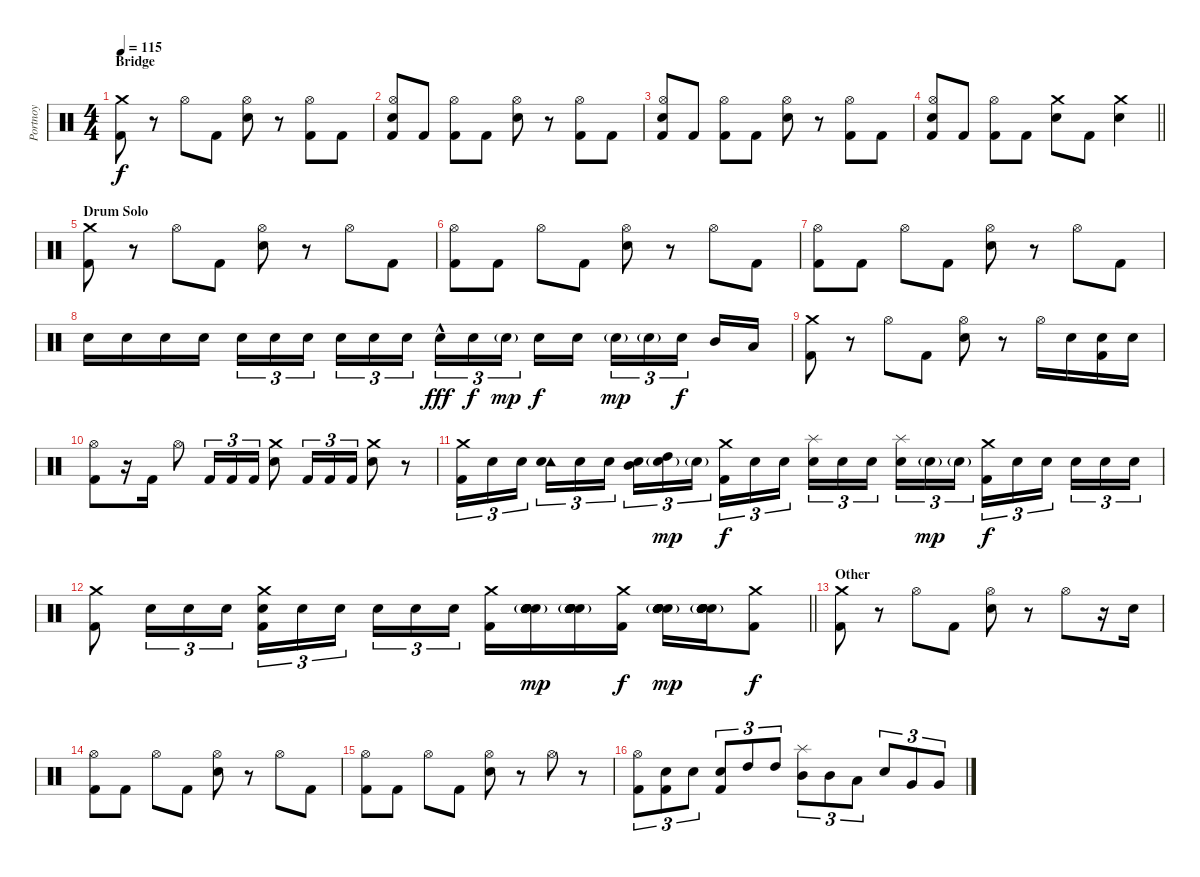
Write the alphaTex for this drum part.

\track ("Portnoy" "Portnoy") {instrument percussion}
\staff {score}
\articulation defaults
\ts (4 4)
\section ("" "Bridge")
\tempo 115
\clef neutral
\ks c
("Crash medium (hit)" "Kick (hit) 2").8{dy f} r.8 "Hi-Hat (open)".8 "Kick (hit) 2".8 ("Hi-Hat (open)" "Snare (hit) 2").8 r.8 ("Hi-Hat (open)" "Kick (hit) 2").8 "Kick (hit) 2".8 |
("Hi-Hat (open)" "Snare (hit) 2" "Kick (hit) 2").8 "Kick (hit) 2".8 ("Hi-Hat (open)" "Kick (hit) 2").8 "Kick (hit) 2".8 ("Hi-Hat (open)" "Snare (hit) 2").8 r.8 ("Hi-Hat (open)" "Kick (hit) 2").8 "Kick (hit) 2".8 |
("Hi-Hat (open)" "Snare (hit) 2" "Kick (hit) 2").8 "Kick (hit) 2".8 ("Hi-Hat (open)" "Kick (hit) 2").8 "Kick (hit) 2".8 ("Hi-Hat (open)" "Snare (hit) 2").8 r.8 ("Hi-Hat (open)" "Kick (hit) 2").8 "Kick (hit) 2".8 |
\barLineRight lightlight
("Hi-Hat (open)" "Snare (hit) 2" "Kick (hit) 2").8 "Kick (hit) 2".8 ("Hi-Hat (open)" "Kick (hit) 2").8 "Kick (hit) 2".8 ("Crash medium (hit)" "Snare (hit) 2").8 "Kick (hit) 2".8 ("Crash medium (hit)" "Snare (hit) 2").4 |
\section ("" "Drum Solo")
("Crash medium (hit)" "Kick (hit) 2").8 r.8 "Hi-Hat (open)".8 "Kick (hit) 2".8 ("Hi-Hat (open)" "Snare (hit) 2").8 r.8 "Hi-Hat (open)".8 "Kick (hit) 2".8 |
("Hi-Hat (open)" "Kick (hit) 2").8 "Kick (hit) 2".8 "Hi-Hat (open)".8 "Kick (hit) 2".8 ("Hi-Hat (open)" "Snare (hit) 2").8 r.8 "Hi-Hat (open)".8 "Kick (hit) 2".8 |
("Hi-Hat (open)" "Kick (hit) 2").8 "Kick (hit) 2".8 "Hi-Hat (open)".8 "Kick (hit) 2".8 ("Hi-Hat (open)" "Snare (hit) 2").8 r.8 "Hi-Hat (open)".8 "Kick (hit) 2".8 |
"Snare (hit) 2".16{volume 7} "Snare (hit) 2".16{volume 13} "Snare (hit) 2".16 "Snare (hit) 2".16 "Snare (hit) 2".16{tu (3 2)} "Snare (hit) 2".16{tu (3 2)} "Snare (hit) 2".16{tu (3 2) beam splitsecondary} "Snare (hit) 2".16{tu (3 2)} "Snare (hit) 2".16{tu (3 2)} "Snare (hit) 2".16{tu (3 2)} "Snare (hit) 2"{hac}.16{tu (3 2) dy fff} "Snare (hit) 2".16{tu (3 2) dy f} "Snare (hit) 2"{g}.16{tu (3 2) dy mp beam splitsecondary} "Snare (hit) 2".16{dy f} "Snare (hit) 2".16 "Snare (hit) 2"{g}.16{tu (3 2) dy mp} "Snare (hit) 2"{g}.16{tu (3 2)} "Snare (hit) 2".16{tu (3 2) dy f beam splitsecondary} "Mid Tom (hit)".16 "Low Tom (hit)".16 |
("Crash medium (hit)" "Kick (hit) 2").8 r.8 "Hi-Hat (open)".8 "Kick (hit) 2".8 ("Hi-Hat (open)" "Snare (hit) 2").8 r.8 "Hi-Hat (open)".16 "Snare (hit) 2".16 ("Snare (hit) 2" "Kick (hit) 2").16 "Snare (hit) 2".16 |
("Hi-Hat (open)" "Kick (hit) 2").8 r.16 "Kick (hit) 2".16 "Hi-Hat (open)".8 "Kick (hit) 2".16{tu (3 2)} "Kick (hit) 2".16{tu (3 2)} "Kick (hit) 2".16{tu (3 2)} ("Crash medium (hit)" "Snare (hit) 2").8 "Kick (hit) 2".16{tu (3 2)} "Kick (hit) 2".16{tu (3 2)} "Kick (hit) 2".16{tu (3 2)} ("Crash medium (hit)" "Snare (hit) 2").8 r.8 |
("Crash medium (hit)" "Kick (hit) 2").16{tu (3 2)} "Snare (hit) 2".16{tu (3 2)} "Snare (hit) 2".16{tu (3 2) beam splitsecondary} ("Tambourine (hit)" "Snare (hit) 2").16{tu (3 2)} "Snare (hit) 2".16{tu (3 2)} "Snare (hit) 2".16{tu (3 2)} ("Mid Tom (hit)" "Snare (hit) 2").16{tu (3 2)} ("High Tom (hit)" "Snare (hit) 2"{g}).16{tu (3 2) dy mp} "Snare (hit) 2"{g}.16{tu (3 2) beam splitsecondary} ("Crash medium (hit)" "Kick (hit) 2").16{tu (3 2) dy f} "Snare (hit) 2".16{tu (3 2)} "Snare (hit) 2".16{tu (3 2)} ("Splash (hit)" "Snare (hit) 2").16{tu (3 2)} "Snare (hit) 2".16{tu (3 2)} "Snare (hit) 2".16{tu (3 2) beam splitsecondary} ("Splash (hit)" "Snare (hit) 2").16{tu (3 2)} "Snare (hit) 2"{g}.16{tu (3 2) dy mp} "Snare (hit) 2"{g}.16{tu (3 2)} ("Crash medium (hit)" "Kick (hit) 2").16{tu (3 2) dy f} "Snare (hit) 2".16{tu (3 2)} "Snare (hit) 2".16{tu (3 2) beam splitsecondary} "Snare (hit) 2".16{tu (3 2)} "Snare (hit) 2".16{tu (3 2)} "Snare (hit) 2".16{tu (3 2)} |
\barLineRight lightlight
("Crash medium (hit)" "Kick (hit) 2").8 "Snare (hit) 2".16{tu (3 2)} "Snare (hit) 2".16{tu (3 2)} "Snare (hit) 2".16{tu (3 2)} ("Crash medium (hit)" "Snare (hit) 2" "Kick (hit) 2").16{tu (3 2)} "Snare (hit) 2".16{tu (3 2)} "Snare (hit) 2".16{tu (3 2) beam splitsecondary} "Snare (hit) 2".16{tu (3 2)} "Snare (hit) 2".16{tu (3 2)} "Snare (hit) 2".16{tu (3 2)} ("Crash medium (hit)" "Kick (hit) 2").16 ("Snare (hit) 2"{g} "Snare (hit) 2"{g} "Snare (hit) 2"{g} "Snare (hit) 2"{g} "Snare (hit) 2"{g} "Snare (hit) 2"{g}).16{dy mp} ("Snare (hit) 2"{g} "Snare (hit) 2"{g} "Snare (hit) 2"{g} "Snare (hit) 2"{g} "Snare (hit) 2"{g} "Snare (hit) 2"{g}).16 ("Crash medium (hit)" "Kick (hit) 2").16{dy f} ("Snare (hit) 2"{g} "Snare (hit) 2"{g} "Snare (hit) 2"{g} "Snare (hit) 2"{g} "Snare (hit) 2"{g} "Snare (hit) 2"{g}).16{dy mp} ("Snare (hit) 2"{g} "Snare (hit) 2"{g} "Snare (hit) 2"{g} "Snare (hit) 2"{g} "Snare (hit) 2"{g} "Snare (hit) 2"{g}).16 ("Crash medium (hit)" "Kick (hit) 2").8{dy f} |
\section ("" "Other")
("Crash medium (hit)" "Kick (hit) 2").8 r.8 "Hi-Hat (open)".8 "Kick (hit) 2".8 ("Hi-Hat (open)" "Snare (hit) 2").8 r.8 "Hi-Hat (open)".8 r.16 "Snare (hit) 2".16 |
("Hi-Hat (open)" "Kick (hit) 2").8 "Kick (hit) 2".8 "Hi-Hat (open)".8 "Kick (hit) 2".8 ("Hi-Hat (open)" "Snare (hit) 2").8 r.8 "Hi-Hat (open)".8 "Kick (hit) 2".8 |
("Hi-Hat (open)" "Kick (hit) 2").8 "Kick (hit) 2".8 "Hi-Hat (open)".8 "Kick (hit) 2".8 ("Hi-Hat (open)" "Snare (hit) 2").8 r.8 "Hi-Hat (open)".8 r.8 |
("Hi-Hat (open)" "Kick (hit) 2").8{tu (3 2)} ("Snare (hit) 2" "Kick (hit) 2").8{tu (3 2)} "Snare (hit) 2".8{tu (3 2)} ("Snare (hit) 2" "Kick (hit) 2").8{tu (3 2)} "High Tom (hit)".8{tu (3 2)} "High Tom (hit)".8{tu (3 2)} ("Splash (hit)" "Mid Tom (hit)").8{tu (3 2)} "Mid Tom (hit)".8{tu (3 2)} "Low Tom (hit)".8{tu (3 2)} "Snare (hit) 2".8{tu (3 2)} "Very Low Tom (hit)".8{tu (3 2)} "Very Low Tom (hit)".8{tu (3 2)}
